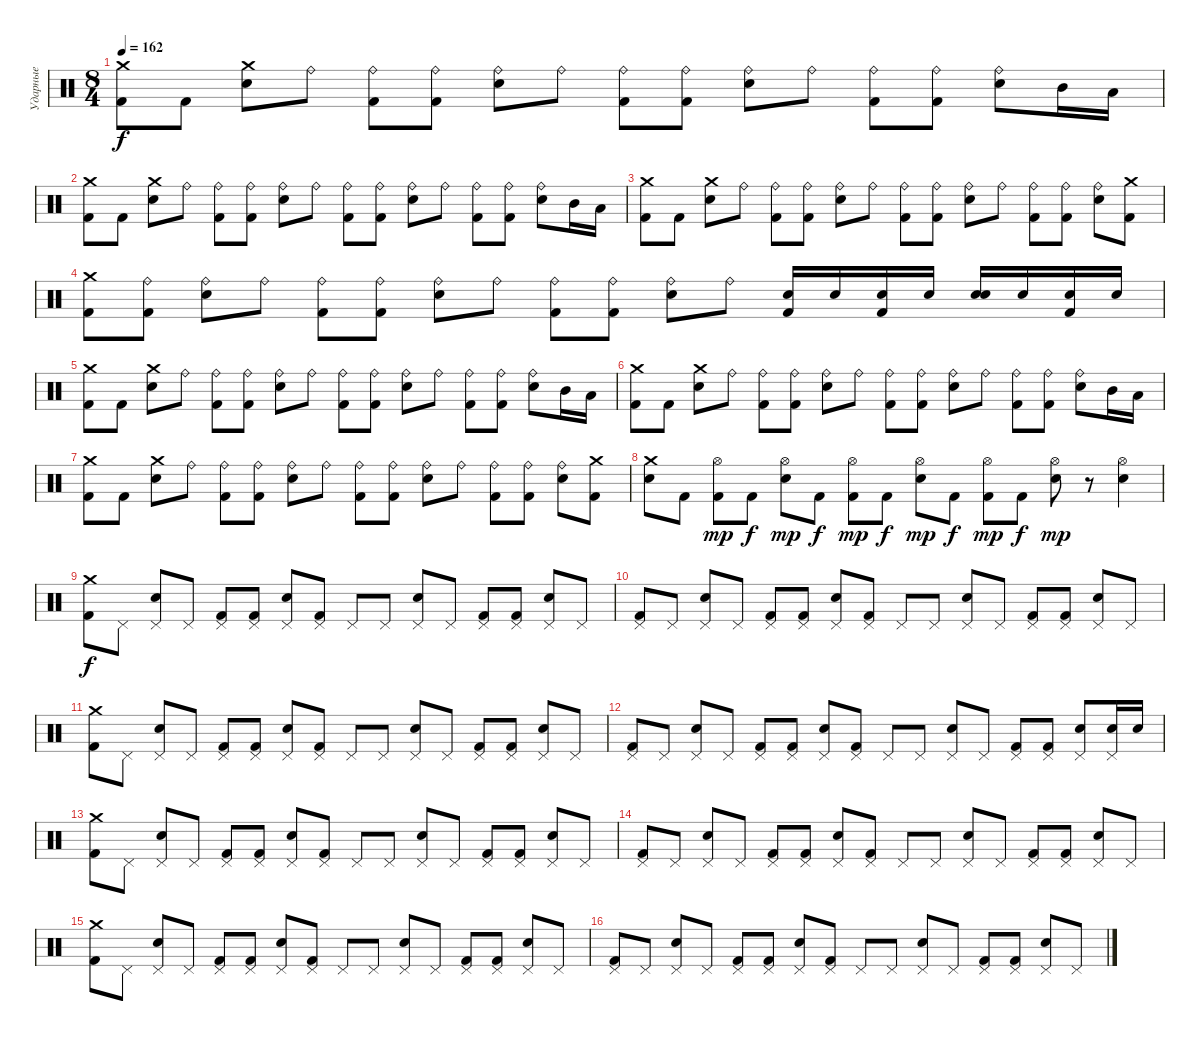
\track ("Ударные" "Ударные") {instrument percussion}
\staff {score}
\articulation defaults
\ts (8 4)
\tempo 162
\clef neutral
\ks c
("Crash medium (hit)" "Kick (hit) 2").8{dy f} "Kick (hit) 2".8 ("Crash medium (hit)" "Snare (hit) 2").8 "Ride (bell)".8 ("Ride (bell)" "Kick (hit) 2").8 ("Ride (bell)" "Kick (hit) 2").8 ("Ride (bell)" "Snare (hit) 2").8 "Ride (bell)".8 ("Ride (bell)" "Kick (hit) 2").8 ("Ride (bell)" "Kick (hit) 2").8 ("Ride (bell)" "Snare (hit) 2").8 "Ride (bell)".8 ("Ride (bell)" "Kick (hit) 2").8 ("Ride (bell)" "Kick (hit) 2").8 ("Ride (bell)" "Snare (hit) 2").8 "Mid Tom (hit)".16 "Low Tom (hit)".16 |
("Crash medium (hit)" "Kick (hit) 2").8 "Kick (hit) 2".8 ("Crash medium (hit)" "Snare (hit) 2").8 "Ride (bell)".8 ("Ride (bell)" "Kick (hit) 2").8 ("Ride (bell)" "Kick (hit) 2").8 ("Ride (bell)" "Snare (hit) 2").8 "Ride (bell)".8 ("Ride (bell)" "Kick (hit) 2").8 ("Ride (bell)" "Kick (hit) 2").8 ("Ride (bell)" "Snare (hit) 2").8 "Ride (bell)".8 ("Ride (bell)" "Kick (hit) 2").8 ("Ride (bell)" "Kick (hit) 2").8 ("Ride (bell)" "Snare (hit) 2").8 "Mid Tom (hit)".16 "Low Tom (hit)".16 |
("Crash medium (hit)" "Kick (hit) 2").8 "Kick (hit) 2".8 ("Crash medium (hit)" "Snare (hit) 2").8 "Ride (bell)".8 ("Ride (bell)" "Kick (hit) 2").8 ("Ride (bell)" "Kick (hit) 2").8 ("Ride (bell)" "Snare (hit) 2").8 "Ride (bell)".8 ("Ride (bell)" "Kick (hit) 2").8 ("Ride (bell)" "Kick (hit) 2").8 ("Ride (bell)" "Snare (hit) 2").8 "Ride (bell)".8 ("Ride (bell)" "Kick (hit) 2").8 ("Ride (bell)" "Kick (hit) 2").8 ("Ride (bell)" "Snare (hit) 2").8 ("Crash medium (hit)" "Kick (hit) 2").8 |
("Crash medium (hit)" "Kick (hit) 2").8 ("Ride (bell)" "Kick (hit) 2").8 ("Ride (bell)" "Snare (hit) 2").8 "Ride (bell)".8 ("Ride (bell)" "Kick (hit) 2").8 ("Ride (bell)" "Kick (hit) 2").8 ("Ride (bell)" "Snare (hit) 2").8 "Ride (bell)".8 ("Ride (bell)" "Kick (hit) 2").8 ("Ride (bell)" "Kick (hit) 2").8 ("Ride (bell)" "Snare (hit) 2").8 "Ride (bell)".8 ("Snare (hit) 2" "Kick (hit) 2").16 "Snare (hit) 2".16 ("Snare (hit) 2" "Kick (hit) 2").16 "Snare (hit) 2".16 ("Snare (hit) 2" "Snare (hit) 2").16 "Snare (hit) 2".16 ("Snare (hit) 2" "Kick (hit) 2").16 "Snare (hit) 2".16 |
("Crash medium (hit)" "Kick (hit) 2").8 "Kick (hit) 2".8 ("Crash medium (hit)" "Snare (hit) 2").8 "Ride (bell)".8 ("Ride (bell)" "Kick (hit) 2").8 ("Ride (bell)" "Kick (hit) 2").8 ("Ride (bell)" "Snare (hit) 2").8 "Ride (bell)".8 ("Ride (bell)" "Kick (hit) 2").8 ("Ride (bell)" "Kick (hit) 2").8 ("Ride (bell)" "Snare (hit) 2").8 "Ride (bell)".8 ("Ride (bell)" "Kick (hit) 2").8 ("Ride (bell)" "Kick (hit) 2").8 ("Ride (bell)" "Snare (hit) 2").8 "Mid Tom (hit)".16 "Low Tom (hit)".16 |
("Crash medium (hit)" "Kick (hit) 2").8 "Kick (hit) 2".8 ("Crash medium (hit)" "Snare (hit) 2").8 "Ride (bell)".8 ("Ride (bell)" "Kick (hit) 2").8 ("Ride (bell)" "Kick (hit) 2").8 ("Ride (bell)" "Snare (hit) 2").8 "Ride (bell)".8 ("Ride (bell)" "Kick (hit) 2").8 ("Ride (bell)" "Kick (hit) 2").8 ("Ride (bell)" "Snare (hit) 2").8 "Ride (bell)".8 ("Ride (bell)" "Kick (hit) 2").8 ("Ride (bell)" "Kick (hit) 2").8 ("Ride (bell)" "Snare (hit) 2").8 "Mid Tom (hit)".16 "Low Tom (hit)".16 |
("Crash medium (hit)" "Kick (hit) 2").8 "Kick (hit) 2".8 ("Crash medium (hit)" "Snare (hit) 2").8 "Ride (bell)".8 ("Ride (bell)" "Kick (hit) 2").8 ("Ride (bell)" "Kick (hit) 2").8 ("Ride (bell)" "Snare (hit) 2").8 "Ride (bell)".8 ("Ride (bell)" "Kick (hit) 2").8 ("Ride (bell)" "Kick (hit) 2").8 ("Ride (bell)" "Snare (hit) 2").8 "Ride (bell)".8 ("Ride (bell)" "Kick (hit) 2").8 ("Ride (bell)" "Kick (hit) 2").8 ("Ride (bell)" "Snare (hit) 2").8 ("Crash medium (hit)" "Kick (hit) 2").8 |
("Crash medium (hit)" "Snare (hit) 2").8 "Kick (hit) 2".8 ("Hi-Hat (open)" "Kick (hit) 2").8{dy mp} "Kick (hit) 2".8{dy f} ("Hi-Hat (open)" "Snare (hit) 2").8{dy mp} "Kick (hit) 2".8{dy f} ("Hi-Hat (open)" "Kick (hit) 2").8{dy mp} "Kick (hit) 2".8{dy f} ("Hi-Hat (open)" "Snare (hit) 2").8{dy mp} "Kick (hit) 2".8{dy f} ("Hi-Hat (open)" "Kick (hit) 2").8{dy mp} "Kick (hit) 2".8{dy f} ("Hi-Hat (open)" "Snare (hit) 2").8{dy mp} r.8 ("Hi-Hat (open)" "Snare (hit) 2").4 |
("Crash medium (hit)" "Kick (hit) 2").8{dy f} "Pedal Hi-Hat (hit)".8 ("Pedal Hi-Hat (hit)" "Snare (hit) 2").8 "Pedal Hi-Hat (hit)".8 ("Pedal Hi-Hat (hit)" "Kick (hit) 2").8 ("Pedal Hi-Hat (hit)" "Kick (hit) 2").8 ("Pedal Hi-Hat (hit)" "Snare (hit) 2").8 ("Pedal Hi-Hat (hit)" "Kick (hit) 2").8 "Pedal Hi-Hat (hit)".8 "Pedal Hi-Hat (hit)".8 ("Pedal Hi-Hat (hit)" "Snare (hit) 2").8 "Pedal Hi-Hat (hit)".8 ("Pedal Hi-Hat (hit)" "Kick (hit) 2").8 ("Pedal Hi-Hat (hit)" "Kick (hit) 2").8 ("Pedal Hi-Hat (hit)" "Snare (hit) 2").8 "Pedal Hi-Hat (hit)".8 |
("Pedal Hi-Hat (hit)" "Kick (hit) 2").8 "Pedal Hi-Hat (hit)".8 ("Pedal Hi-Hat (hit)" "Snare (hit) 2").8 "Pedal Hi-Hat (hit)".8 ("Pedal Hi-Hat (hit)" "Kick (hit) 2").8 ("Pedal Hi-Hat (hit)" "Kick (hit) 2").8 ("Pedal Hi-Hat (hit)" "Snare (hit) 2").8 ("Pedal Hi-Hat (hit)" "Kick (hit) 2").8 "Pedal Hi-Hat (hit)".8 "Pedal Hi-Hat (hit)".8 ("Pedal Hi-Hat (hit)" "Snare (hit) 2").8 "Pedal Hi-Hat (hit)".8 ("Pedal Hi-Hat (hit)" "Kick (hit) 2").8 ("Pedal Hi-Hat (hit)" "Kick (hit) 2").8 ("Pedal Hi-Hat (hit)" "Snare (hit) 2").8 "Pedal Hi-Hat (hit)".8 |
("Crash medium (hit)" "Kick (hit) 2").8 "Pedal Hi-Hat (hit)".8 ("Pedal Hi-Hat (hit)" "Snare (hit) 2").8 "Pedal Hi-Hat (hit)".8 ("Pedal Hi-Hat (hit)" "Kick (hit) 2").8 ("Pedal Hi-Hat (hit)" "Kick (hit) 2").8 ("Pedal Hi-Hat (hit)" "Snare (hit) 2").8 ("Pedal Hi-Hat (hit)" "Kick (hit) 2").8 "Pedal Hi-Hat (hit)".8 "Pedal Hi-Hat (hit)".8 ("Pedal Hi-Hat (hit)" "Snare (hit) 2").8 "Pedal Hi-Hat (hit)".8 ("Pedal Hi-Hat (hit)" "Kick (hit) 2").8 ("Pedal Hi-Hat (hit)" "Kick (hit) 2").8 ("Pedal Hi-Hat (hit)" "Snare (hit) 2").8 "Pedal Hi-Hat (hit)".8 |
("Pedal Hi-Hat (hit)" "Kick (hit) 2").8 "Pedal Hi-Hat (hit)".8 ("Pedal Hi-Hat (hit)" "Snare (hit) 2").8 "Pedal Hi-Hat (hit)".8 ("Pedal Hi-Hat (hit)" "Kick (hit) 2").8 ("Pedal Hi-Hat (hit)" "Kick (hit) 2").8 ("Pedal Hi-Hat (hit)" "Snare (hit) 2").8 ("Pedal Hi-Hat (hit)" "Kick (hit) 2").8 "Pedal Hi-Hat (hit)".8 "Pedal Hi-Hat (hit)".8 ("Pedal Hi-Hat (hit)" "Snare (hit) 2").8 "Pedal Hi-Hat (hit)".8 ("Pedal Hi-Hat (hit)" "Kick (hit) 2").8 ("Pedal Hi-Hat (hit)" "Kick (hit) 2").8 ("Pedal Hi-Hat (hit)" "Snare (hit) 2").8 ("Pedal Hi-Hat (hit)" "Snare (hit) 2").16 "Snare (hit) 2".16 |
("Crash medium (hit)" "Kick (hit) 2").8 "Pedal Hi-Hat (hit)".8 ("Pedal Hi-Hat (hit)" "Snare (hit) 2").8 "Pedal Hi-Hat (hit)".8 ("Pedal Hi-Hat (hit)" "Kick (hit) 2").8 ("Pedal Hi-Hat (hit)" "Kick (hit) 2").8 ("Pedal Hi-Hat (hit)" "Snare (hit) 2").8 ("Pedal Hi-Hat (hit)" "Kick (hit) 2").8 "Pedal Hi-Hat (hit)".8 "Pedal Hi-Hat (hit)".8 ("Pedal Hi-Hat (hit)" "Snare (hit) 2").8 "Pedal Hi-Hat (hit)".8 ("Pedal Hi-Hat (hit)" "Kick (hit) 2").8 ("Pedal Hi-Hat (hit)" "Kick (hit) 2").8 ("Pedal Hi-Hat (hit)" "Snare (hit) 2").8 "Pedal Hi-Hat (hit)".8 |
("Pedal Hi-Hat (hit)" "Kick (hit) 2").8 "Pedal Hi-Hat (hit)".8 ("Pedal Hi-Hat (hit)" "Snare (hit) 2").8 "Pedal Hi-Hat (hit)".8 ("Pedal Hi-Hat (hit)" "Kick (hit) 2").8 ("Pedal Hi-Hat (hit)" "Kick (hit) 2").8 ("Pedal Hi-Hat (hit)" "Snare (hit) 2").8 ("Pedal Hi-Hat (hit)" "Kick (hit) 2").8 "Pedal Hi-Hat (hit)".8 "Pedal Hi-Hat (hit)".8 ("Pedal Hi-Hat (hit)" "Snare (hit) 2").8 "Pedal Hi-Hat (hit)".8 ("Pedal Hi-Hat (hit)" "Kick (hit) 2").8 ("Pedal Hi-Hat (hit)" "Kick (hit) 2").8 ("Pedal Hi-Hat (hit)" "Snare (hit) 2").8 "Pedal Hi-Hat (hit)".8 |
("Crash medium (hit)" "Kick (hit) 2").8 "Pedal Hi-Hat (hit)".8 ("Pedal Hi-Hat (hit)" "Snare (hit) 2").8 "Pedal Hi-Hat (hit)".8 ("Pedal Hi-Hat (hit)" "Kick (hit) 2").8 ("Pedal Hi-Hat (hit)" "Kick (hit) 2").8 ("Pedal Hi-Hat (hit)" "Snare (hit) 2").8 ("Pedal Hi-Hat (hit)" "Kick (hit) 2").8 "Pedal Hi-Hat (hit)".8 "Pedal Hi-Hat (hit)".8 ("Pedal Hi-Hat (hit)" "Snare (hit) 2").8 "Pedal Hi-Hat (hit)".8 ("Pedal Hi-Hat (hit)" "Kick (hit) 2").8 ("Pedal Hi-Hat (hit)" "Kick (hit) 2").8 ("Pedal Hi-Hat (hit)" "Snare (hit) 2").8 "Pedal Hi-Hat (hit)".8 |
("Pedal Hi-Hat (hit)" "Kick (hit) 2").8 "Pedal Hi-Hat (hit)".8 ("Pedal Hi-Hat (hit)" "Snare (hit) 2").8 "Pedal Hi-Hat (hit)".8 ("Pedal Hi-Hat (hit)" "Kick (hit) 2").8 ("Pedal Hi-Hat (hit)" "Kick (hit) 2").8 ("Pedal Hi-Hat (hit)" "Snare (hit) 2").8 ("Pedal Hi-Hat (hit)" "Kick (hit) 2").8 "Pedal Hi-Hat (hit)".8 "Pedal Hi-Hat (hit)".8 ("Pedal Hi-Hat (hit)" "Snare (hit) 2").8 "Pedal Hi-Hat (hit)".8 ("Pedal Hi-Hat (hit)" "Kick (hit) 2").8 ("Pedal Hi-Hat (hit)" "Kick (hit) 2").8 ("Pedal Hi-Hat (hit)" "Snare (hit) 2").8 "Pedal Hi-Hat (hit)".8
